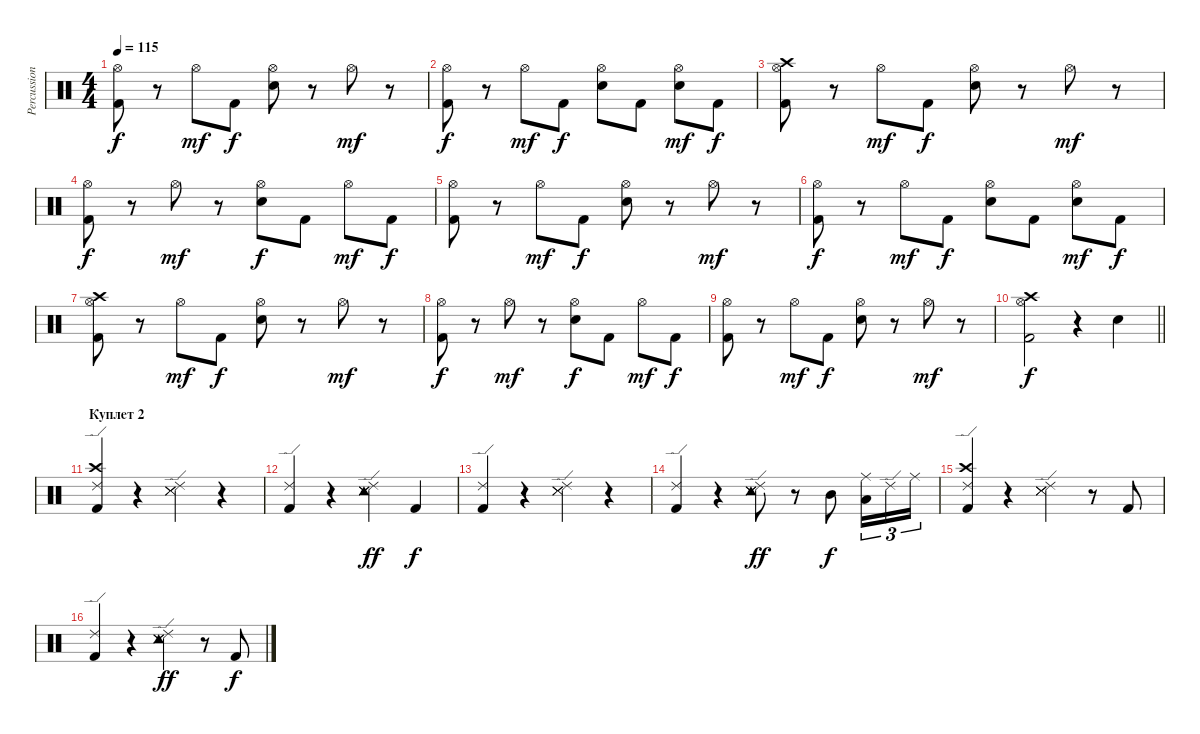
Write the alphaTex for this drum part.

\track ("Percussions" "Percussion") {instrument percussion}
\staff {score}
\articulation defaults
\ts (4 4)
\tempo 115
\clef neutral
\ks c
("Kick (hit) 2" "Hi-Hat (open)").8{dy f} r.8 "Hi-Hat (open)".8{dy mf} "Kick (hit) 2".8{dy f} ("Electric Snare (hit)" "Hi-Hat (open)").8 r.8 "Hi-Hat (open)".8{dy mf} r.8 |
("Kick (hit) 2" "Hi-Hat (open)").8{dy f} r.8 "Hi-Hat (open)".8{dy mf} "Kick (hit) 2".8{dy f} ("Electric Snare (hit)" "Hi-Hat (open)").8 "Kick (hit) 2".8 ("Electric Snare (hit)" "Hi-Hat (open)").8{dy mf} "Kick (hit) 2".8{dy f} |
("Crash high (hit)" "Kick (hit) 2" "Hi-Hat (open)").8 r.8 "Hi-Hat (open)".8{dy mf} "Kick (hit) 2".8{dy f} ("Electric Snare (hit)" "Hi-Hat (open)").8 r.8 "Hi-Hat (open)".8{dy mf} r.8 |
("Kick (hit) 2" "Hi-Hat (open)").8{dy f} r.8 "Hi-Hat (open)".8{dy mf} r.8 ("Electric Snare (hit)" "Hi-Hat (open)").8{dy f} "Kick (hit) 2".8 "Hi-Hat (open)".8{dy mf} "Kick (hit) 2".8{dy f} |
("Kick (hit) 2" "Hi-Hat (open)").8 r.8 "Hi-Hat (open)".8{dy mf} "Kick (hit) 2".8{dy f} ("Electric Snare (hit)" "Hi-Hat (open)").8 r.8 "Hi-Hat (open)".8{dy mf} r.8 |
("Kick (hit) 2" "Hi-Hat (open)").8{dy f} r.8 "Hi-Hat (open)".8{dy mf} "Kick (hit) 2".8{dy f} ("Electric Snare (hit)" "Hi-Hat (open)").8 "Kick (hit) 2".8 ("Electric Snare (hit)" "Hi-Hat (open)").8{dy mf} "Kick (hit) 2".8{dy f} |
("Crash high (hit)" "Kick (hit) 2" "Hi-Hat (open)").8 r.8 "Hi-Hat (open)".8{dy mf} "Kick (hit) 2".8{dy f} ("Electric Snare (hit)" "Hi-Hat (open)").8 r.8 "Hi-Hat (open)".8{dy mf} r.8 |
("Kick (hit) 2" "Hi-Hat (open)").8{dy f} r.8 "Hi-Hat (open)".8{dy mf} r.8 ("Electric Snare (hit)" "Hi-Hat (open)").8{dy f} "Kick (hit) 2".8 "Hi-Hat (open)".8{dy mf} "Kick (hit) 2".8{dy f} |
("Kick (hit) 2" "Hi-Hat (open)").8 r.8 "Hi-Hat (open)".8{dy mf} "Kick (hit) 2".8{dy f} ("Electric Snare (hit)" "Hi-Hat (open)").8 r.8 "Hi-Hat (open)".8{dy mf} r.8 |
\barLineRight lightlight
("Crash high (hit)" "Kick (hit) 2" "Hi-Hat (open)").2{dy f} r.4 "Electric Snare (hit)".4 |
\section ("" "Куплет 2")
("Crash high (hit)" "Kick (hit) 2" "Ride (edge) 2").4 r.4 ("Snare (side stick) 3" "Snare (side stick) 3" "Snare (side stick) 3" "Ride (edge) 2").4 r.4 |
("Kick (hit) 2" "Ride (edge) 2").4 r.4 ("Snare (side stick) 3" "Snare (side stick) 3" "Snare (side stick) 3" "Tambourine (hit)" "Ride (edge) 2").4{dy ff} "Kick (hit) 2".4{dy f} |
("Kick (hit) 2" "Ride (edge) 2").4 r.4 ("Snare (side stick) 3" "Snare (side stick) 3" "Snare (side stick) 3" "Ride (edge) 2").4 r.4 |
("Kick (hit) 2" "Ride (edge) 2").4 r.4 ("Snare (side stick) 3" "Snare (side stick) 3" "Snare (side stick) 3" "Tambourine (hit)" "Ride (edge) 2").8{dy ff} r.8 "Mid Tom (hit)".8{dy f} ("Low Tom (hit)" "Ride (middle)").16{tu (3 2)} "Ride (edge) 2".16{tu (3 2)} "Ride (middle)".16{tu (3 2)} |
("Crash high (hit)" "Kick (hit) 2" "Ride (edge) 2").4 r.4 ("Snare (side stick) 3" "Snare (side stick) 3" "Snare (side stick) 3" "Ride (edge) 2").4 r.8 "Kick (hit) 2".8 |
("Kick (hit) 2" "Ride (edge) 2").4 r.4 ("Snare (side stick) 3" "Snare (side stick) 3" "Snare (side stick) 3" "Tambourine (hit)" "Ride (edge) 2").4{dy ff} r.8 "Kick (hit) 2".8{dy f}
